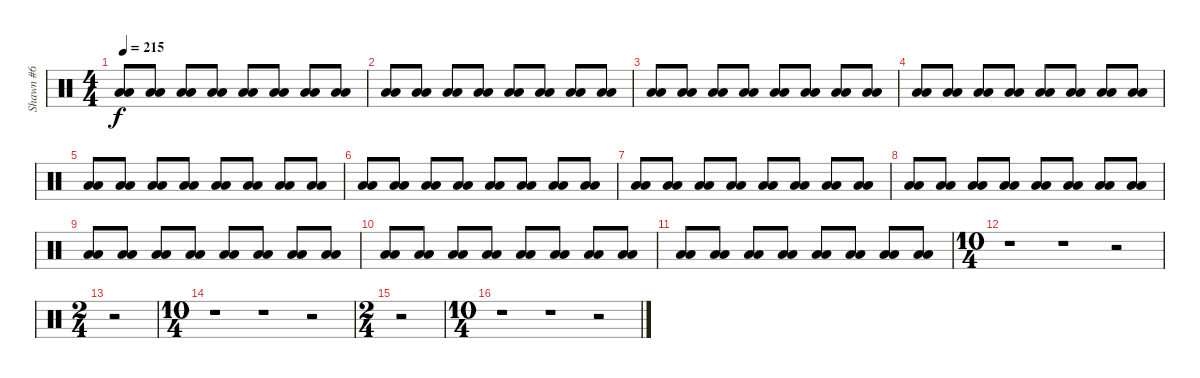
\track ("Shawn #6" "Shawn #6") {instrument percussion}
\staff {score}
\articulation defaults
\ts (4 4)
\tempo 215
\clef neutral
\ks c
("Low Floor Tom (hit)" "Low Floor Tom (hit)").8{dy f} ("Low Floor Tom (hit)" "Low Floor Tom (hit)").8 ("Low Floor Tom (hit)" "Low Floor Tom (hit)").8 ("Low Floor Tom (hit)" "Low Floor Tom (hit)").8 ("Low Floor Tom (hit)" "Low Floor Tom (hit)").8 ("Low Floor Tom (hit)" "Low Floor Tom (hit)").8 ("Low Floor Tom (hit)" "Low Floor Tom (hit)").8 ("Low Floor Tom (hit)" "Low Floor Tom (hit)").8 |
("Low Floor Tom (hit)" "Low Floor Tom (hit)").8 ("Low Floor Tom (hit)" "Low Floor Tom (hit)").8 ("Low Floor Tom (hit)" "Low Floor Tom (hit)").8 ("Low Floor Tom (hit)" "Low Floor Tom (hit)").8 ("Low Floor Tom (hit)" "Low Floor Tom (hit)").8 ("Low Floor Tom (hit)" "Low Floor Tom (hit)").8 ("Low Floor Tom (hit)" "Low Floor Tom (hit)").8 ("Low Floor Tom (hit)" "Low Floor Tom (hit)").8 |
("Low Floor Tom (hit)" "Low Floor Tom (hit)").8 ("Low Floor Tom (hit)" "Low Floor Tom (hit)").8 ("Low Floor Tom (hit)" "Low Floor Tom (hit)").8 ("Low Floor Tom (hit)" "Low Floor Tom (hit)").8 ("Low Floor Tom (hit)" "Low Floor Tom (hit)").8 ("Low Floor Tom (hit)" "Low Floor Tom (hit)").8 ("Low Floor Tom (hit)" "Low Floor Tom (hit)").8 ("Low Floor Tom (hit)" "Low Floor Tom (hit)").8 |
("Low Floor Tom (hit)" "Low Floor Tom (hit)").8 ("Low Floor Tom (hit)" "Low Floor Tom (hit)").8 ("Low Floor Tom (hit)" "Low Floor Tom (hit)").8 ("Low Floor Tom (hit)" "Low Floor Tom (hit)").8 ("Low Floor Tom (hit)" "Low Floor Tom (hit)").8 ("Low Floor Tom (hit)" "Low Floor Tom (hit)").8 ("Low Floor Tom (hit)" "Low Floor Tom (hit)").8 ("Low Floor Tom (hit)" "Low Floor Tom (hit)").8 |
("Low Floor Tom (hit)" "Low Floor Tom (hit)").8 ("Low Floor Tom (hit)" "Low Floor Tom (hit)").8 ("Low Floor Tom (hit)" "Low Floor Tom (hit)").8 ("Low Floor Tom (hit)" "Low Floor Tom (hit)").8 ("Low Floor Tom (hit)" "Low Floor Tom (hit)").8 ("Low Floor Tom (hit)" "Low Floor Tom (hit)").8 ("Low Floor Tom (hit)" "Low Floor Tom (hit)").8 ("Low Floor Tom (hit)" "Low Floor Tom (hit)").8 |
("Low Floor Tom (hit)" "Low Floor Tom (hit)").8 ("Low Floor Tom (hit)" "Low Floor Tom (hit)").8 ("Low Floor Tom (hit)" "Low Floor Tom (hit)").8 ("Low Floor Tom (hit)" "Low Floor Tom (hit)").8 ("Low Floor Tom (hit)" "Low Floor Tom (hit)").8 ("Low Floor Tom (hit)" "Low Floor Tom (hit)").8 ("Low Floor Tom (hit)" "Low Floor Tom (hit)").8 ("Low Floor Tom (hit)" "Low Floor Tom (hit)").8 |
("Low Floor Tom (hit)" "Low Floor Tom (hit)").8 ("Low Floor Tom (hit)" "Low Floor Tom (hit)").8 ("Low Floor Tom (hit)" "Low Floor Tom (hit)").8 ("Low Floor Tom (hit)" "Low Floor Tom (hit)").8 ("Low Floor Tom (hit)" "Low Floor Tom (hit)").8 ("Low Floor Tom (hit)" "Low Floor Tom (hit)").8 ("Low Floor Tom (hit)" "Low Floor Tom (hit)").8 ("Low Floor Tom (hit)" "Low Floor Tom (hit)").8 |
("Low Floor Tom (hit)" "Low Floor Tom (hit)").8 ("Low Floor Tom (hit)" "Low Floor Tom (hit)").8 ("Low Floor Tom (hit)" "Low Floor Tom (hit)").8 ("Low Floor Tom (hit)" "Low Floor Tom (hit)").8 ("Low Floor Tom (hit)" "Low Floor Tom (hit)").8 ("Low Floor Tom (hit)" "Low Floor Tom (hit)").8 ("Low Floor Tom (hit)" "Low Floor Tom (hit)").8 ("Low Floor Tom (hit)" "Low Floor Tom (hit)").8 |
("Low Floor Tom (hit)" "Low Floor Tom (hit)").8 ("Low Floor Tom (hit)" "Low Floor Tom (hit)").8 ("Low Floor Tom (hit)" "Low Floor Tom (hit)").8 ("Low Floor Tom (hit)" "Low Floor Tom (hit)").8 ("Low Floor Tom (hit)" "Low Floor Tom (hit)").8 ("Low Floor Tom (hit)" "Low Floor Tom (hit)").8 ("Low Floor Tom (hit)" "Low Floor Tom (hit)").8 ("Low Floor Tom (hit)" "Low Floor Tom (hit)").8 |
("Low Floor Tom (hit)" "Low Floor Tom (hit)").8 ("Low Floor Tom (hit)" "Low Floor Tom (hit)").8 ("Low Floor Tom (hit)" "Low Floor Tom (hit)").8 ("Low Floor Tom (hit)" "Low Floor Tom (hit)").8 ("Low Floor Tom (hit)" "Low Floor Tom (hit)").8 ("Low Floor Tom (hit)" "Low Floor Tom (hit)").8 ("Low Floor Tom (hit)" "Low Floor Tom (hit)").8 ("Low Floor Tom (hit)" "Low Floor Tom (hit)").8 |
("Low Floor Tom (hit)" "Low Floor Tom (hit)").8 ("Low Floor Tom (hit)" "Low Floor Tom (hit)").8 ("Low Floor Tom (hit)" "Low Floor Tom (hit)").8 ("Low Floor Tom (hit)" "Low Floor Tom (hit)").8 ("Low Floor Tom (hit)" "Low Floor Tom (hit)").8 ("Low Floor Tom (hit)" "Low Floor Tom (hit)").8 ("Low Floor Tom (hit)" "Low Floor Tom (hit)").8 ("Low Floor Tom (hit)" "Low Floor Tom (hit)").8 |
\ts (10 4)
r.1 r.1 r.2 |
\ts (2 4)
r.2 |
\ts (10 4)
r.1 r.1 r.2 |
\ts (2 4)
r.2 |
\ts (10 4)
r.1 r.1 r.2
